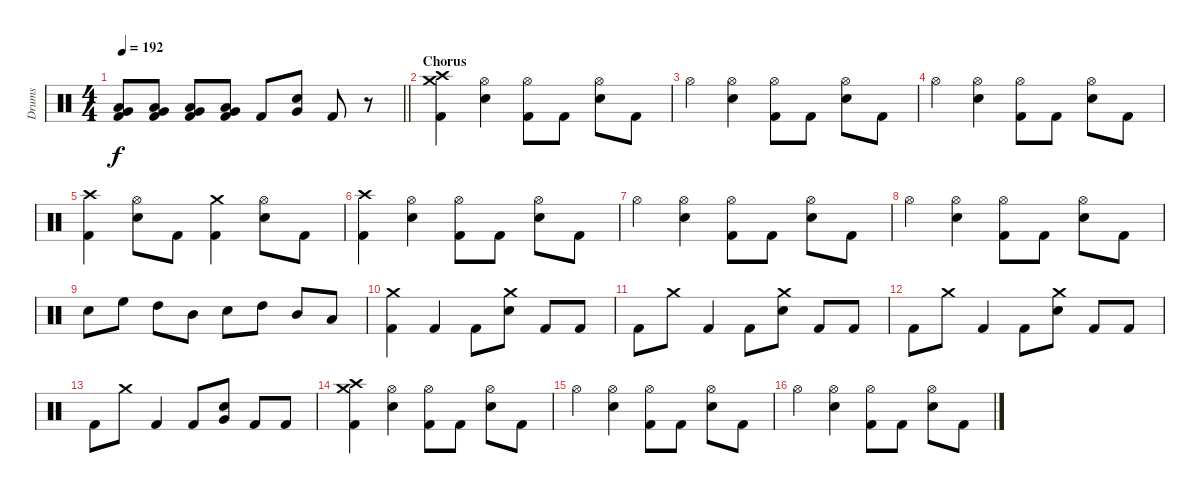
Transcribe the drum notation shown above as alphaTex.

\track ("Drums" "Drums") {instrument percussion}
\staff {score}
\articulation defaults
\ts (4 4)
\tempo 192
\clef neutral
\barLineRight lightlight
\ks c
("Very Low Tom (hit)" "Low Floor Tom (hit)" "Kick (hit) 2").8{dy f} ("Very Low Tom (hit)" "Low Floor Tom (hit)" "Kick (hit) 2").8 ("Very Low Tom (hit)" "Low Floor Tom (hit)" "Kick (hit) 2").8 ("Very Low Tom (hit)" "Low Floor Tom (hit)" "Kick (hit) 2").8 "Kick (hit) 2".8 ("Very Low Tom (hit)" "Electric Snare (hit)").8 "Kick (hit) 2".8 r.8 |
\section ("" "Chorus")
("Crash medium (hit)" "Crash high (hit)" "Kick (hit) 2").4 ("Hi-Hat (open)" "Electric Snare (hit)").4 ("Hi-Hat (open)" "Kick (hit) 2").8 "Kick (hit) 2".8 ("Hi-Hat (open)" "Electric Snare (hit)").8 "Kick (hit) 2".8 |
"Hi-Hat (open)".4 ("Hi-Hat (open)" "Electric Snare (hit)").4 ("Hi-Hat (open)" "Kick (hit) 2").8 "Kick (hit) 2".8 ("Hi-Hat (open)" "Electric Snare (hit)").8 "Kick (hit) 2".8 |
"Hi-Hat (open)".4 ("Hi-Hat (open)" "Electric Snare (hit)").4 ("Hi-Hat (open)" "Kick (hit) 2").8 "Kick (hit) 2".8 ("Hi-Hat (open)" "Electric Snare (hit)").8 "Kick (hit) 2".8 |
("Crash high (hit)" "Kick (hit) 2").4 ("Hi-Hat (open)" "Electric Snare (hit)").8 "Kick (hit) 2".8 ("Crash medium (hit)" "Kick (hit) 2").4 ("Hi-Hat (open)" "Electric Snare (hit)").8 "Kick (hit) 2".8 |
("Crash high (hit)" "Kick (hit) 2").4 ("Hi-Hat (open)" "Electric Snare (hit)").4 ("Hi-Hat (open)" "Kick (hit) 2").8 "Kick (hit) 2".8 ("Hi-Hat (open)" "Electric Snare (hit)").8 "Kick (hit) 2".8 |
"Hi-Hat (open)".4 ("Hi-Hat (open)" "Electric Snare (hit)").4 ("Hi-Hat (open)" "Kick (hit) 2").8 "Kick (hit) 2".8 ("Hi-Hat (open)" "Electric Snare (hit)").8 "Kick (hit) 2".8 |
"Hi-Hat (open)".4 ("Hi-Hat (open)" "Electric Snare (hit)").4 ("Hi-Hat (open)" "Kick (hit) 2").8 "Kick (hit) 2".8 ("Hi-Hat (open)" "Electric Snare (hit)").8 "Kick (hit) 2".8 |
"Electric Snare (hit)".8 "High Floor Tom (hit)".8 "High Tom (hit)".8 "Mid Tom (hit)".8 "Electric Snare (hit)".8 "High Tom (hit)".8 "Mid Tom (hit)".8 "Low Tom (hit)".8 |
("Crash medium (hit)" "Kick (hit) 2").4 "Kick (hit) 2".4 "Kick (hit) 2".8 ("Crash medium (hit)" "Electric Snare (hit)").8 "Kick (hit) 2".8 "Kick (hit) 2".8 |
"Kick (hit) 2".8 "Crash medium (hit)".8 "Kick (hit) 2".4 "Kick (hit) 2".8 ("Crash medium (hit)" "Electric Snare (hit)").8 "Kick (hit) 2".8 "Kick (hit) 2".8 |
"Kick (hit) 2".8 "Crash medium (hit)".8 "Kick (hit) 2".4 "Kick (hit) 2".8 ("Crash medium (hit)" "Electric Snare (hit)").8 "Kick (hit) 2".8 "Kick (hit) 2".8 |
"Kick (hit) 2".8 "Crash medium (hit)".8 "Kick (hit) 2".4 "Kick (hit) 2".8 ("Very Low Tom (hit)" "Electric Snare (hit)").8 "Kick (hit) 2".8 "Kick (hit) 2".8 |
("Crash medium (hit)" "Crash high (hit)" "Kick (hit) 2").4 ("Hi-Hat (open)" "Electric Snare (hit)").4 ("Hi-Hat (open)" "Kick (hit) 2").8 "Kick (hit) 2".8 ("Hi-Hat (open)" "Electric Snare (hit)").8 "Kick (hit) 2".8 |
"Hi-Hat (open)".4 ("Hi-Hat (open)" "Electric Snare (hit)").4 ("Hi-Hat (open)" "Kick (hit) 2").8 "Kick (hit) 2".8 ("Hi-Hat (open)" "Electric Snare (hit)").8 "Kick (hit) 2".8 |
"Hi-Hat (open)".4 ("Hi-Hat (open)" "Electric Snare (hit)").4 ("Hi-Hat (open)" "Kick (hit) 2").8 "Kick (hit) 2".8 ("Hi-Hat (open)" "Electric Snare (hit)").8 "Kick (hit) 2".8
